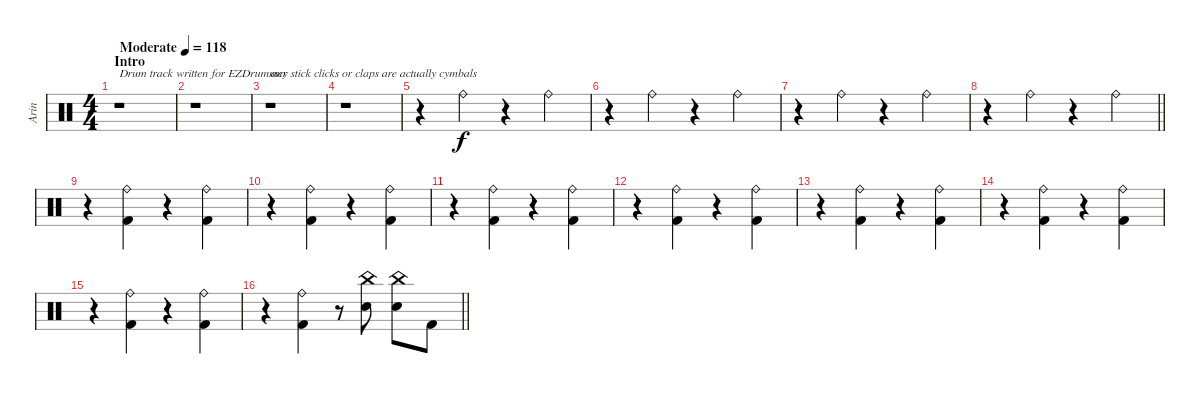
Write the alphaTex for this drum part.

\track ("Arin" "Arin") {instrument percussion}
\staff {score}
\articulation defaults
\ts (4 4)
\section ("" "Intro")
\tempo (118 "Moderate")
\clef neutral
\ks c
r.1{txt "Drum track written for EZDrummer " dy f} |
r.1 |
r.1{txt "any stick clicks or claps are actually cymbals"} |
r.1 |
r.4 "Ride (bell)".4 r.4 "Ride (bell)".4 |
r.4 "Ride (bell)".4 r.4 "Ride (bell)".4 |
r.4 "Ride (bell)".4 r.4 "Ride (bell)".4 |
\barLineRight lightlight
r.4 "Ride (bell)".4 r.4 "Ride (bell)".4 |
\section ("" "")
r.4 ("Ride (bell)" "Kick (hit) 2").4 r.4 ("Ride (bell)" "Kick (hit) 2").4 |
r.4 ("Ride (bell)" "Kick (hit) 2").4 r.4 ("Ride (bell)" "Kick (hit) 2").4 |
r.4 ("Ride (bell)" "Kick (hit) 2").4 r.4 ("Ride (bell)" "Kick (hit) 2").4 |
r.4 ("Ride (bell)" "Kick (hit) 2").4 r.4 ("Ride (bell)" "Kick (hit) 2").4 |
r.4 ("Ride (bell)" "Kick (hit) 2").4 r.4 ("Ride (bell)" "Kick (hit) 2").4 |
r.4 ("Ride (bell)" "Kick (hit) 2").4 r.4 ("Ride (bell)" "Kick (hit) 2").4 |
r.4 ("Ride (bell)" "Kick (hit) 2").4 r.4 ("Ride (bell)" "Kick (hit) 2").4 |
\barLineRight lightlight
r.4 ("Ride (bell)" "Kick (hit) 2").4 r.8 ("China (hit)" "Electric Snare (hit)").8 ("China (hit)" "Electric Snare (hit)").8 "Kick (hit) 2".8
